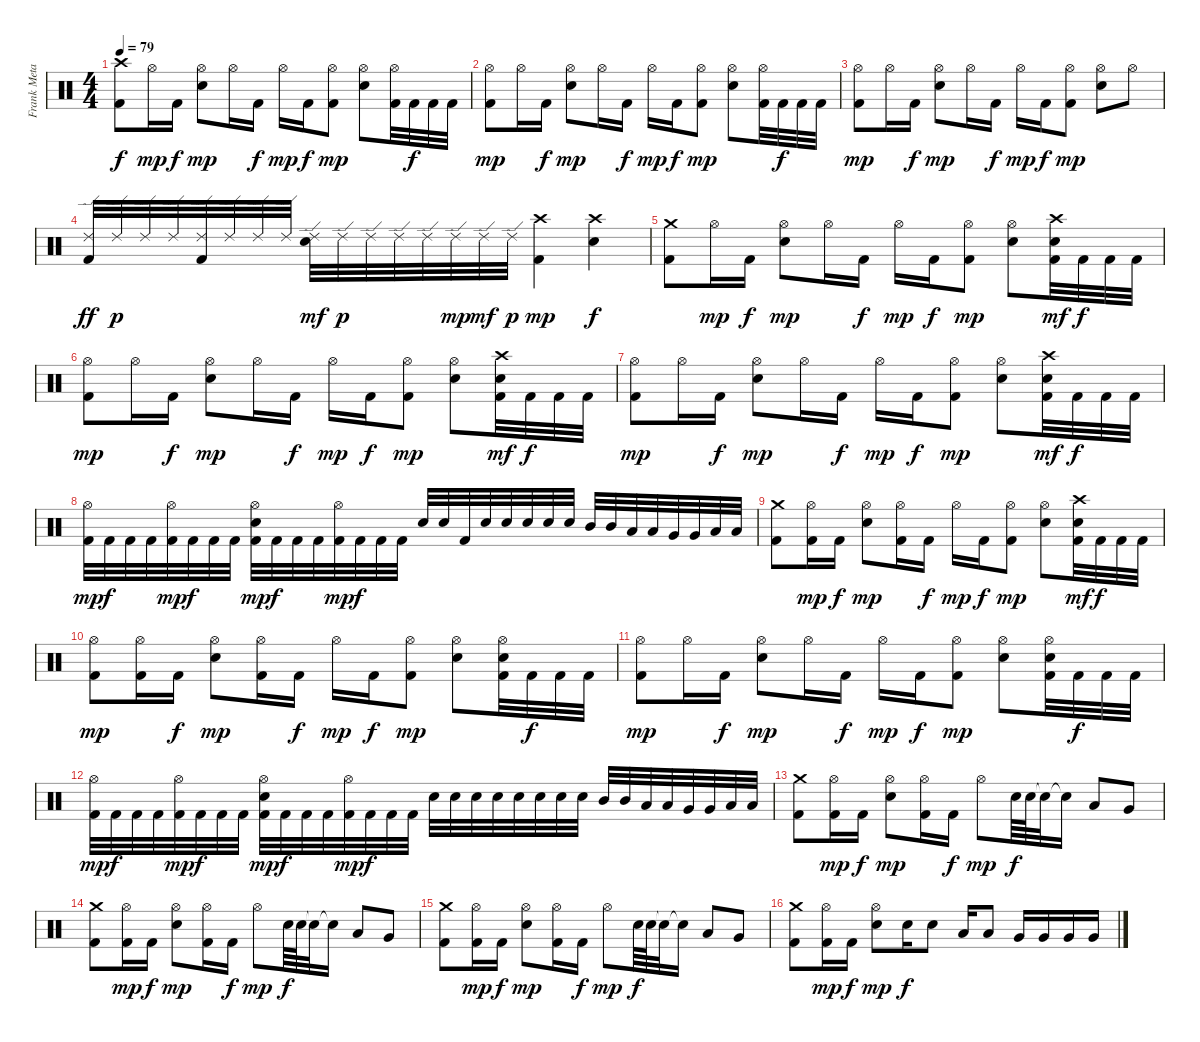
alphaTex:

\track ("Frank Metayer" "Frank Meta") {instrument percussion}
\staff {score}
\articulation defaults
\ts (4 4)
\tempo 79
\clef neutral
\ks c
("Kick (hit) 2" "Crash high (hit)").8{dy f} "Hi-Hat (open)".16{dy mp} "Kick (hit) 2".16{dy f} ("Hi-Hat (open)" "Snare (hit) 2").8{dy mp} "Hi-Hat (open)".16 "Kick (hit) 2".16{dy f} "Hi-Hat (open)".16{dy mp} "Kick (hit) 2".16{dy f} ("Kick (hit) 2" "Hi-Hat (open)").8{dy mp} ("Hi-Hat (open)" "Snare (hit) 2").8 ("Kick (hit) 2" "Hi-Hat (open)").32 "Kick (hit) 2".32{dy f} "Kick (hit) 2".32 "Kick (hit) 2".32 |
("Kick (hit) 2" "Hi-Hat (open)").8{dy mp} "Hi-Hat (open)".16 "Kick (hit) 2".16{dy f} ("Hi-Hat (open)" "Snare (hit) 2").8{dy mp} "Hi-Hat (open)".16 "Kick (hit) 2".16{dy f} "Hi-Hat (open)".16{dy mp} "Kick (hit) 2".16{dy f} ("Kick (hit) 2" "Hi-Hat (open)").8{dy mp} ("Hi-Hat (open)" "Snare (hit) 2").8 ("Kick (hit) 2" "Hi-Hat (open)").32 "Kick (hit) 2".32{dy f} "Kick (hit) 2".32 "Kick (hit) 2".32 |
("Kick (hit) 2" "Hi-Hat (open)").8{dy mp} "Hi-Hat (open)".16 "Kick (hit) 2".16{dy f} ("Hi-Hat (open)" "Snare (hit) 2").8{dy mp} "Hi-Hat (open)".16 "Kick (hit) 2".16{dy f} "Hi-Hat (open)".16{dy mp} "Kick (hit) 2".16{dy f} ("Kick (hit) 2" "Hi-Hat (open)").8{dy mp} ("Hi-Hat (open)" "Snare (hit) 2").8 "Hi-Hat (open)".8 |
("Kick (hit) 2" "Ride (edge) 2").32{dy ff} "Ride (edge) 2".32{dy p} "Ride (edge) 2".32 "Ride (edge) 2".32 ("Kick (hit) 2" "Ride (edge) 2").32 "Ride (edge) 2".32 "Ride (edge) 2".32 "Ride (edge) 2".32 ("Ride (edge) 2" "Snare (hit) 2").32{dy mf} "Ride (edge) 2".32{dy p} "Ride (edge) 2".32 "Ride (edge) 2".32 "Ride (edge) 2".32 "Ride (edge) 2".32{dy mp} "Ride (edge) 2".32{dy mf} "Ride (edge) 2".32{dy p} ("Kick (hit) 2" "Crash high (hit)").4{dy mp} ("Crash high (hit)" "Snare (hit) 2").4{dy f} |
("Kick (hit) 2" "Crash medium (hit)").8 "Hi-Hat (open)".16{dy mp} "Kick (hit) 2".16{dy f} ("Hi-Hat (open)" "Snare (hit) 2").8{dy mp} "Hi-Hat (open)".16 "Kick (hit) 2".16{dy f} "Hi-Hat (open)".16{dy mp} "Kick (hit) 2".16{dy f} ("Kick (hit) 2" "Hi-Hat (open)").8{dy mp} ("Hi-Hat (open)" "Snare (hit) 2").8 ("Kick (hit) 2" "Crash high (hit)" "Snare (hit) 2").32{dy mf} "Kick (hit) 2".32{dy f} "Kick (hit) 2".32 "Kick (hit) 2".32 |
("Kick (hit) 2" "Hi-Hat (open)").8{dy mp} "Hi-Hat (open)".16 "Kick (hit) 2".16{dy f} ("Hi-Hat (open)" "Snare (hit) 2").8{dy mp} "Hi-Hat (open)".16 "Kick (hit) 2".16{dy f} "Hi-Hat (open)".16{dy mp} "Kick (hit) 2".16{dy f} ("Kick (hit) 2" "Hi-Hat (open)").8{dy mp} ("Hi-Hat (open)" "Snare (hit) 2").8 ("Kick (hit) 2" "Crash high (hit)" "Snare (hit) 2").32{dy mf} "Kick (hit) 2".32{dy f} "Kick (hit) 2".32 "Kick (hit) 2".32 |
("Kick (hit) 2" "Hi-Hat (open)").8{dy mp} "Hi-Hat (open)".16 "Kick (hit) 2".16{dy f} ("Hi-Hat (open)" "Snare (hit) 2").8{dy mp} "Hi-Hat (open)".16 "Kick (hit) 2".16{dy f} "Hi-Hat (open)".16{dy mp} "Kick (hit) 2".16{dy f} ("Kick (hit) 2" "Hi-Hat (open)").8{dy mp} ("Hi-Hat (open)" "Snare (hit) 2").8 ("Kick (hit) 2" "Crash high (hit)" "Snare (hit) 2").32{dy mf} "Kick (hit) 2".32{dy f} "Kick (hit) 2".32 "Kick (hit) 2".32 |
("Kick (hit) 2" "Hi-Hat (open)").32{dy mp} "Kick (hit) 2".32{dy f} "Kick (hit) 2".32 "Kick (hit) 2".32 ("Kick (hit) 2" "Hi-Hat (open)").32{dy mp} "Kick (hit) 2".32{dy f} "Kick (hit) 2".32 "Kick (hit) 2".32 ("Kick (hit) 2" "Hi-Hat (open)" "Snare (hit) 2").32{dy mp} "Kick (hit) 2".32{dy f} "Kick (hit) 2".32 "Kick (hit) 2".32 ("Kick (hit) 2" "Hi-Hat (open)").32{dy mp} "Kick (hit) 2".32{dy f} "Kick (hit) 2".32 "Kick (hit) 2".32 "Snare (hit) 2".32 "Snare (hit) 2".32 "Kick (hit) 2".32 "Snare (hit) 2".32 "Snare (hit) 2".32 "Snare (hit) 2".32 "Snare (hit) 2".32 "Snare (hit) 2".32 "Mid Tom (hit)".32 "Mid Tom (hit)".32 "Low Tom (hit)".32 "Low Tom (hit)".32 "Very Low Tom (hit)".32 "Very Low Tom (hit)".32 "Low Floor Tom (hit)".32 "Low Floor Tom (hit)".32 |
("Kick (hit) 2" "Crash medium (hit)").8 ("Kick (hit) 2" "Hi-Hat (open)").16{dy mp} "Kick (hit) 2".16{dy f} ("Hi-Hat (open)" "Snare (hit) 2").8{dy mp} ("Kick (hit) 2" "Hi-Hat (open)").16 "Kick (hit) 2".16{dy f} "Hi-Hat (open)".16{dy mp} "Kick (hit) 2".16{dy f} ("Kick (hit) 2" "Hi-Hat (open)").8{dy mp} ("Hi-Hat (open)" "Snare (hit) 2").8 ("Kick (hit) 2" "Crash high (hit)" "Snare (hit) 2").32{dy mf} "Kick (hit) 2".32{dy f} "Kick (hit) 2".32 "Kick (hit) 2".32 |
("Kick (hit) 2" "Hi-Hat (open)").8{dy mp} ("Kick (hit) 2" "Hi-Hat (open)").16 "Kick (hit) 2".16{dy f} ("Hi-Hat (open)" "Snare (hit) 2").8{dy mp} ("Kick (hit) 2" "Hi-Hat (open)").16 "Kick (hit) 2".16{dy f} "Hi-Hat (open)".16{dy mp} "Kick (hit) 2".16{dy f} ("Kick (hit) 2" "Hi-Hat (open)").8{dy mp} ("Hi-Hat (open)" "Snare (hit) 2").8 ("Kick (hit) 2" "Hi-Hat (open)" "Snare (hit) 2").32 "Kick (hit) 2".32{dy f} "Kick (hit) 2".32 "Kick (hit) 2".32 |
("Kick (hit) 2" "Hi-Hat (open)").8{dy mp} "Hi-Hat (open)".16 "Kick (hit) 2".16{dy f} ("Hi-Hat (open)" "Snare (hit) 2").8{dy mp} "Hi-Hat (open)".16 "Kick (hit) 2".16{dy f} "Hi-Hat (open)".16{dy mp} "Kick (hit) 2".16{dy f} ("Kick (hit) 2" "Hi-Hat (open)").8{dy mp} ("Hi-Hat (open)" "Snare (hit) 2").8 ("Kick (hit) 2" "Hi-Hat (open)" "Snare (hit) 2").32 "Kick (hit) 2".32{dy f} "Kick (hit) 2".32 "Kick (hit) 2".32 |
("Kick (hit) 2" "Hi-Hat (open)").32{dy mp} "Kick (hit) 2".32{dy f} "Kick (hit) 2".32 "Kick (hit) 2".32 ("Kick (hit) 2" "Hi-Hat (open)").32{dy mp} "Kick (hit) 2".32{dy f} "Kick (hit) 2".32 "Kick (hit) 2".32 ("Kick (hit) 2" "Hi-Hat (open)" "Snare (hit) 2").32{dy mp} "Kick (hit) 2".32{dy f} "Kick (hit) 2".32 "Kick (hit) 2".32 ("Kick (hit) 2" "Hi-Hat (open)").32{dy mp} "Kick (hit) 2".32{dy f} "Kick (hit) 2".32 "Kick (hit) 2".32 "Snare (hit) 2".32 "Snare (hit) 2".32 "Snare (hit) 2".32 "Snare (hit) 2".32 "Snare (hit) 2".32 "Snare (hit) 2".32 "Snare (hit) 2".32 "Snare (hit) 2".32 "Mid Tom (hit)".32 "Mid Tom (hit)".32 "Low Tom (hit)".32 "Low Tom (hit)".32 "Very Low Tom (hit)".32 "Very Low Tom (hit)".32 "Low Floor Tom (hit)".32 "Low Floor Tom (hit)".32 |
("Kick (hit) 2" "Crash medium (hit)").8 ("Kick (hit) 2" "Hi-Hat (open)").16{dy mp} "Kick (hit) 2".16{dy f} ("Hi-Hat (open)" "Snare (hit) 2").8{dy mp} ("Kick (hit) 2" "Hi-Hat (open)").16 "Kick (hit) 2".16{dy f} "Hi-Hat (open)".8{dy mp} "Snare (hit) 2".64{dy f} "Snare (hit) 2".64 "Snare (hit)"{t}.32 "Snare (hit)"{t}.16 "Low Tom (hit)".8 "Very Low Tom (hit)".8 |
("Kick (hit) 2" "Crash medium (hit)").8 ("Kick (hit) 2" "Hi-Hat (open)").16{dy mp} "Kick (hit) 2".16{dy f} ("Hi-Hat (open)" "Snare (hit) 2").8{dy mp} ("Kick (hit) 2" "Hi-Hat (open)").16 "Kick (hit) 2".16{dy f} "Hi-Hat (open)".8{dy mp} "Snare (hit) 2".64{dy f} "Snare (hit) 2".64 "Snare (hit)"{t}.32 "Snare (hit)"{t}.16 "Low Tom (hit)".8 "Very Low Tom (hit)".8 |
("Kick (hit) 2" "Crash medium (hit)").8 ("Kick (hit) 2" "Hi-Hat (open)").16{dy mp} "Kick (hit) 2".16{dy f} ("Hi-Hat (open)" "Snare (hit) 2").8{dy mp} ("Kick (hit) 2" "Hi-Hat (open)").16 "Kick (hit) 2".16{dy f} "Hi-Hat (open)".8{dy mp} "Snare (hit) 2".64{dy f} "Snare (hit) 2".64 "Snare (hit)"{t}.32 "Snare (hit)"{t}.16 "Low Tom (hit)".8 "Very Low Tom (hit)".8 |
("Kick (hit) 2" "Crash medium (hit)").8 ("Kick (hit) 2" "Hi-Hat (open)").16{dy mp} "Kick (hit) 2".16{dy f} ("Hi-Hat (open)" "Snare (hit) 2").8{dy mp} "Snare (hit) 2".16{dy f} "Snare (hit) 2".8 "Low Tom (hit)".16 "Low Tom (hit)".8 "Very Low Tom (hit)".16 "Very Low Tom (hit)".16 "Very Low Tom (hit)".16 "Very Low Tom (hit)".16
